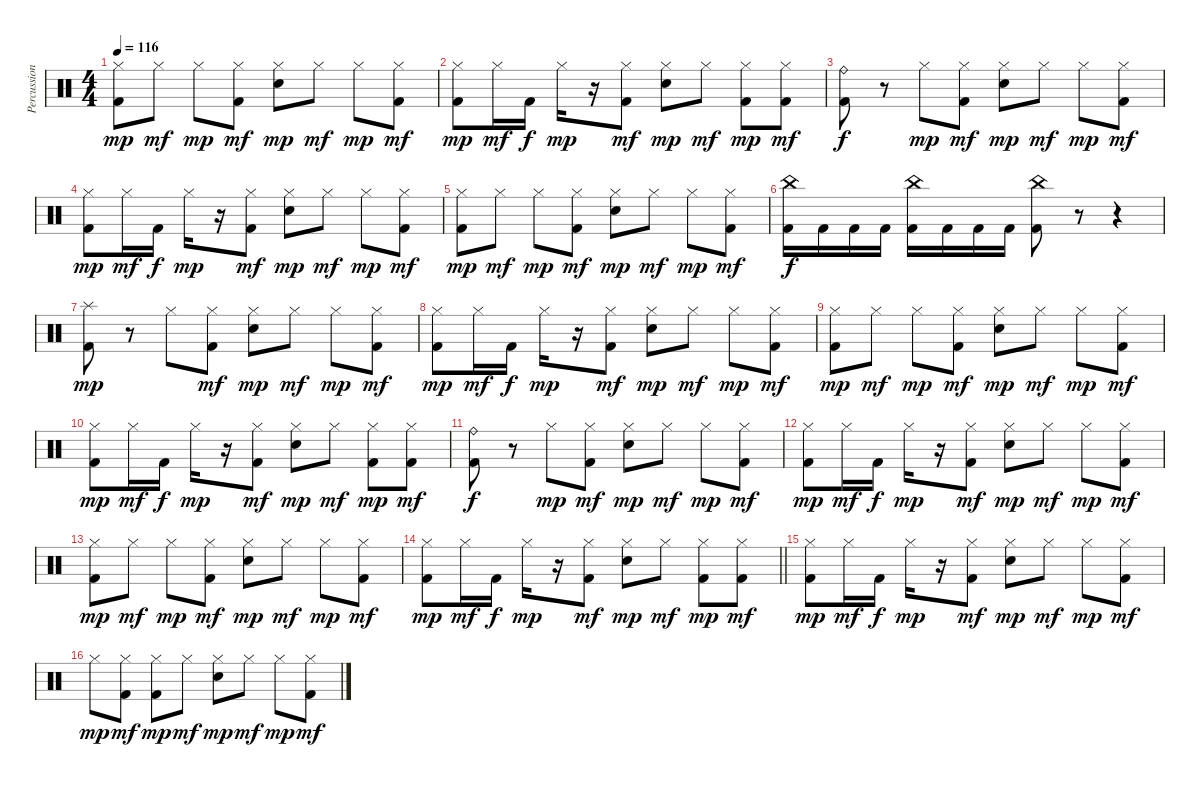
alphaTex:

\track ("Percussion (Moose)" "Percussion") {instrument percussion}
\staff {score}
\articulation defaults
\ts (4 4)
\tempo 116
\clef neutral
\ks c
("Kick (hit) 2" "Hi-Hat (closed)").8{dy mp} "Hi-Hat (closed)".8{dy mf} "Hi-Hat (closed)".8{dy mp} ("Kick (hit) 2" "Hi-Hat (closed)").8{dy mf} ("Snare (hit) 2" "Hi-Hat (closed)").8{dy mp} "Hi-Hat (closed)".8{dy mf} "Hi-Hat (closed)".8{dy mp} ("Kick (hit) 2" "Hi-Hat (closed)").8{dy mf} |
("Kick (hit) 2" "Hi-Hat (closed)").8{dy mp} "Hi-Hat (closed)".16{dy mf} "Kick (hit) 2".16{dy f} "Hi-Hat (closed)".16{dy mp} r.16 ("Kick (hit) 2" "Hi-Hat (closed)").8{dy mf} ("Snare (hit) 2" "Hi-Hat (closed)").8{dy mp} "Hi-Hat (closed)".8{dy mf} ("Kick (hit) 2" "Hi-Hat (closed)").8{dy mp} ("Kick (hit) 2" "Hi-Hat (closed)").8{dy mf} |
("Kick (hit) 2" "Ride (bell)").8{dy f} r.8 "Hi-Hat (closed)".8{dy mp} ("Kick (hit) 2" "Hi-Hat (closed)").8{dy mf} ("Snare (hit) 2" "Hi-Hat (closed)").8{dy mp} "Hi-Hat (closed)".8{dy mf} "Hi-Hat (closed)".8{dy mp} ("Kick (hit) 2" "Hi-Hat (closed)").8{dy mf} |
("Kick (hit) 2" "Hi-Hat (closed)").8{dy mp} "Hi-Hat (closed)".16{dy mf} "Kick (hit) 2".16{dy f} "Hi-Hat (closed)".16{dy mp} r.16 ("Kick (hit) 2" "Hi-Hat (closed)").8{dy mf} ("Snare (hit) 2" "Hi-Hat (closed)").8{dy mp} "Hi-Hat (closed)".8{dy mf} "Hi-Hat (closed)".8{dy mp} ("Kick (hit) 2" "Hi-Hat (closed)").8{dy mf} |
("Kick (hit) 2" "Hi-Hat (closed)").8{dy mp} "Hi-Hat (closed)".8{dy mf} "Hi-Hat (closed)".8{dy mp} ("Kick (hit) 2" "Hi-Hat (closed)").8{dy mf} ("Snare (hit) 2" "Hi-Hat (closed)").8{dy mp} "Hi-Hat (closed)".8{dy mf} "Hi-Hat (closed)".8{dy mp} ("Kick (hit) 2" "Hi-Hat (closed)").8{dy mf} |
("Kick (hit) 2" "China (hit)").16{dy f} "Kick (hit) 2".16 "Kick (hit) 2".16 "Kick (hit) 2".16 ("Kick (hit) 2" "China (hit)").16 "Kick (hit) 2".16 "Kick (hit) 2".16 "Kick (hit) 2".16 ("Kick (hit) 2" "China (hit)").8 r.8 r.4 |
("Kick (hit) 2" "Splash (hit)").8{dy mp} r.8 "Hi-Hat (closed)".8 ("Kick (hit) 2" "Hi-Hat (closed)").8{dy mf} ("Snare (hit) 2" "Hi-Hat (closed)").8{dy mp} "Hi-Hat (closed)".8{dy mf} "Hi-Hat (closed)".8{dy mp} ("Kick (hit) 2" "Hi-Hat (closed)").8{dy mf} |
("Kick (hit) 2" "Hi-Hat (closed)").8{dy mp} "Hi-Hat (closed)".16{dy mf} "Kick (hit) 2".16{dy f} "Hi-Hat (closed)".16{dy mp} r.16 ("Kick (hit) 2" "Hi-Hat (closed)").8{dy mf} ("Snare (hit) 2" "Hi-Hat (closed)").8{dy mp} "Hi-Hat (closed)".8{dy mf} "Hi-Hat (closed)".8{dy mp} ("Kick (hit) 2" "Hi-Hat (closed)").8{dy mf} |
("Kick (hit) 2" "Hi-Hat (closed)").8{dy mp} "Hi-Hat (closed)".8{dy mf} "Hi-Hat (closed)".8{dy mp} ("Kick (hit) 2" "Hi-Hat (closed)").8{dy mf} ("Snare (hit) 2" "Hi-Hat (closed)").8{dy mp} "Hi-Hat (closed)".8{dy mf} "Hi-Hat (closed)".8{dy mp} ("Kick (hit) 2" "Hi-Hat (closed)").8{dy mf} |
("Kick (hit) 2" "Hi-Hat (closed)").8{dy mp} "Hi-Hat (closed)".16{dy mf} "Kick (hit) 2".16{dy f} "Hi-Hat (closed)".16{dy mp} r.16 ("Kick (hit) 2" "Hi-Hat (closed)").8{dy mf} ("Snare (hit) 2" "Hi-Hat (closed)").8{dy mp} "Hi-Hat (closed)".8{dy mf} ("Kick (hit) 2" "Hi-Hat (closed)").8{dy mp} ("Kick (hit) 2" "Hi-Hat (closed)").8{dy mf} |
("Kick (hit) 2" "Ride (bell)").8{dy f} r.8 "Hi-Hat (closed)".8{dy mp} ("Kick (hit) 2" "Hi-Hat (closed)").8{dy mf} ("Snare (hit) 2" "Hi-Hat (closed)").8{dy mp} "Hi-Hat (closed)".8{dy mf} "Hi-Hat (closed)".8{dy mp} ("Kick (hit) 2" "Hi-Hat (closed)").8{dy mf} |
("Kick (hit) 2" "Hi-Hat (closed)").8{dy mp} "Hi-Hat (closed)".16{dy mf} "Kick (hit) 2".16{dy f} "Hi-Hat (closed)".16{dy mp} r.16 ("Kick (hit) 2" "Hi-Hat (closed)").8{dy mf} ("Snare (hit) 2" "Hi-Hat (closed)").8{dy mp} "Hi-Hat (closed)".8{dy mf} "Hi-Hat (closed)".8{dy mp} ("Kick (hit) 2" "Hi-Hat (closed)").8{dy mf} |
("Kick (hit) 2" "Hi-Hat (closed)").8{dy mp} "Hi-Hat (closed)".8{dy mf} "Hi-Hat (closed)".8{dy mp} ("Kick (hit) 2" "Hi-Hat (closed)").8{dy mf} ("Snare (hit) 2" "Hi-Hat (closed)").8{dy mp} "Hi-Hat (closed)".8{dy mf} "Hi-Hat (closed)".8{dy mp} ("Kick (hit) 2" "Hi-Hat (closed)").8{dy mf} |
\barLineRight lightlight
("Kick (hit) 2" "Hi-Hat (closed)").8{dy mp} "Hi-Hat (closed)".16{dy mf} "Kick (hit) 2".16{dy f} "Hi-Hat (closed)".16{dy mp} r.16 ("Kick (hit) 2" "Hi-Hat (closed)").8{dy mf} ("Snare (hit) 2" "Hi-Hat (closed)").8{dy mp} "Hi-Hat (closed)".8{dy mf} ("Kick (hit) 2" "Hi-Hat (closed)").8{dy mp} ("Kick (hit) 2" "Hi-Hat (closed)").8{dy mf} |
("Kick (hit) 2" "Hi-Hat (closed)").8{dy mp} "Hi-Hat (closed)".16{dy mf} "Kick (hit) 2".16{dy f} "Hi-Hat (closed)".16{dy mp} r.16 ("Kick (hit) 2" "Hi-Hat (closed)").8{dy mf} ("Snare (hit) 2" "Hi-Hat (closed)").8{dy mp} "Hi-Hat (closed)".8{dy mf} "Hi-Hat (closed)".8{dy mp} ("Kick (hit) 2" "Hi-Hat (closed)").8{dy mf} |
"Hi-Hat (closed)".8{dy mp} ("Kick (hit) 2" "Hi-Hat (closed)").8{dy mf} ("Kick (hit) 2" "Hi-Hat (closed)").8{dy mp} "Hi-Hat (closed)".8{dy mf} ("Snare (hit) 2" "Hi-Hat (closed)").8{dy mp} "Hi-Hat (closed)".8{dy mf} "Hi-Hat (closed)".8{dy mp} ("Kick (hit) 2" "Hi-Hat (closed)").8{dy mf}
